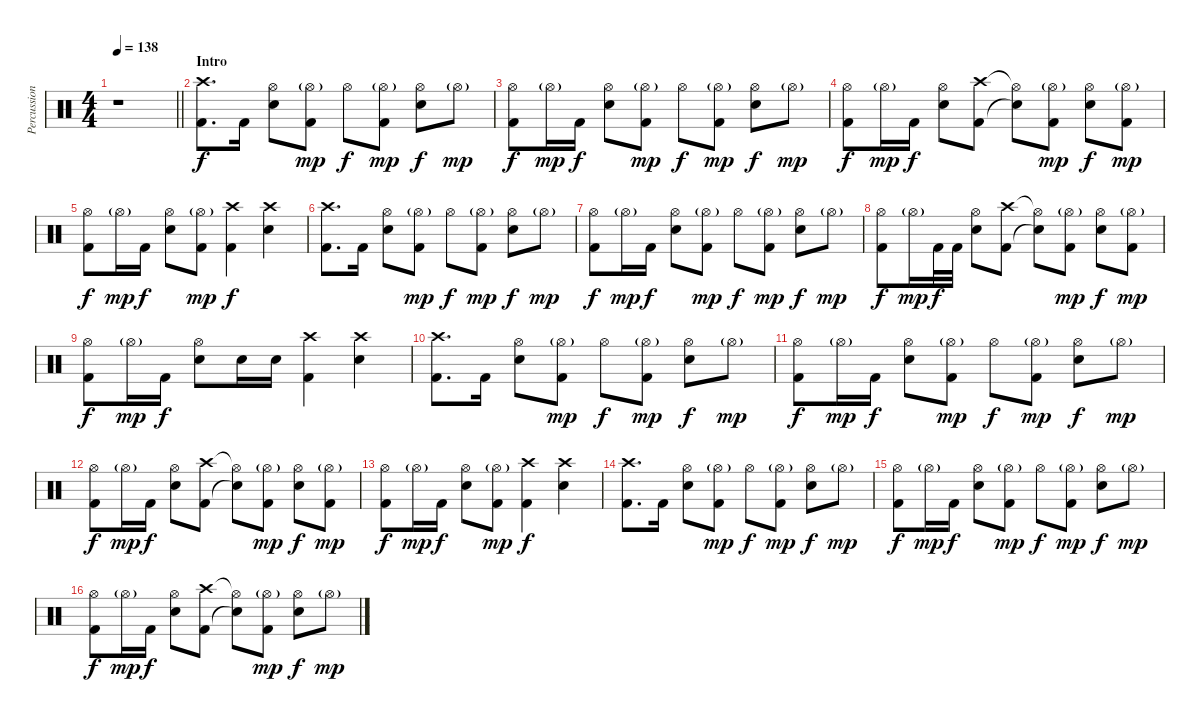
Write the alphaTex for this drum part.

\track ("Percussion" "Percussion") {instrument percussion}
\staff {score}
\articulation defaults
\ts (4 4)
\tempo 138
\clef neutral
\barLineRight lightlight
\ks c
r.1{dy f} |
\section ("" "Intro")
("Crash high (hit)" "Kick (hit) 2").8{d} "Kick (hit) 2".16 ("Hi-Hat (open)" "Snare (hit) 2").8 ("Hi-Hat (open)"{g} "Kick (hit) 2").8{dy mp} "Hi-Hat (open)".8{dy f} ("Hi-Hat (open)"{g} "Kick (hit) 2").8{dy mp} ("Hi-Hat (open)" "Snare (hit) 2").8{dy f} "Hi-Hat (open)"{g}.8{dy mp} |
("Hi-Hat (open)" "Kick (hit) 2").8{dy f} "Hi-Hat (open)"{g}.16{dy mp} "Kick (hit) 2".16{dy f} ("Hi-Hat (open)" "Snare (hit) 2").8 ("Hi-Hat (open)"{g} "Kick (hit) 2").8{dy mp} "Hi-Hat (open)".8{dy f} ("Hi-Hat (open)"{g} "Kick (hit) 2").8{dy mp} ("Hi-Hat (open)" "Snare (hit) 2").8{dy f} "Hi-Hat (open)"{g}.8{dy mp} |
("Hi-Hat (open)" "Kick (hit) 2").8{dy f} "Hi-Hat (open)"{g}.16{dy mp} "Kick (hit) 2".16{dy f} ("Hi-Hat (open)" "Snare (hit) 2").8 ("Crash high (hit)" "Kick (hit) 2").8 ("Hi-Hat (open)"{t} "Snare (hit)"{t}).8 ("Hi-Hat (open)"{g} "Kick (hit) 2").8{dy mp} ("Hi-Hat (open)" "Snare (hit) 2").8{dy f} ("Hi-Hat (open)"{g} "Kick (hit) 2").8{dy mp} |
("Hi-Hat (open)" "Kick (hit) 2").8{dy f} "Hi-Hat (open)"{g}.16{dy mp} "Kick (hit) 2".16{dy f} ("Hi-Hat (open)" "Snare (hit) 2").8 ("Hi-Hat (open)"{g} "Kick (hit) 2").8{dy mp} ("Crash high (hit)" "Kick (hit) 2").4{dy f} ("Crash high (hit)" "Snare (hit) 2").4 |
("Crash high (hit)" "Kick (hit) 2").8{d} "Kick (hit) 2".16 ("Hi-Hat (open)" "Snare (hit) 2").8 ("Hi-Hat (open)"{g} "Kick (hit) 2").8{dy mp} "Hi-Hat (open)".8{dy f} ("Hi-Hat (open)"{g} "Kick (hit) 2").8{dy mp} ("Hi-Hat (open)" "Snare (hit) 2").8{dy f} "Hi-Hat (open)"{g}.8{dy mp} |
("Hi-Hat (open)" "Kick (hit) 2").8{dy f} "Hi-Hat (open)"{g}.16{dy mp} "Kick (hit) 2".16{dy f} ("Hi-Hat (open)" "Snare (hit) 2").8 ("Hi-Hat (open)"{g} "Kick (hit) 2").8{dy mp} "Hi-Hat (open)".8{dy f} ("Hi-Hat (open)"{g} "Kick (hit) 2").8{dy mp} ("Hi-Hat (open)" "Snare (hit) 2").8{dy f} "Hi-Hat (open)"{g}.8{dy mp} |
("Hi-Hat (open)" "Kick (hit) 2").8{dy f} "Hi-Hat (open)"{g}.16{dy mp} "Kick (hit) 2".32{dy f} "Kick (hit) 2".32 ("Hi-Hat (open)" "Snare (hit) 2").8 ("Crash high (hit)" "Kick (hit) 2").8 ("Hi-Hat (open)"{t} "Snare (hit)"{t}).8 ("Hi-Hat (open)"{g} "Kick (hit) 2").8{dy mp} ("Hi-Hat (open)" "Snare (hit) 2").8{dy f} ("Hi-Hat (open)"{g} "Kick (hit) 2").8{dy mp} |
("Hi-Hat (open)" "Kick (hit) 2").8{dy f} "Hi-Hat (open)"{g}.16{dy mp} "Kick (hit) 2".16{dy f} ("Hi-Hat (open)" "Snare (hit) 2").8 "Snare (hit) 2".16 "Snare (hit) 2".16 ("Crash high (hit)" "Kick (hit) 2").4 ("Crash high (hit)" "Snare (hit) 2").4 |
("Crash high (hit)" "Kick (hit) 2").8{d} "Kick (hit) 2".16 ("Hi-Hat (open)" "Snare (hit) 2").8 ("Hi-Hat (open)"{g} "Kick (hit) 2").8{dy mp} "Hi-Hat (open)".8{dy f} ("Hi-Hat (open)"{g} "Kick (hit) 2").8{dy mp} ("Hi-Hat (open)" "Snare (hit) 2").8{dy f} "Hi-Hat (open)"{g}.8{dy mp} |
("Hi-Hat (open)" "Kick (hit) 2").8{dy f} "Hi-Hat (open)"{g}.16{dy mp} "Kick (hit) 2".16{dy f} ("Hi-Hat (open)" "Snare (hit) 2").8 ("Hi-Hat (open)"{g} "Kick (hit) 2").8{dy mp} "Hi-Hat (open)".8{dy f} ("Hi-Hat (open)"{g} "Kick (hit) 2").8{dy mp} ("Hi-Hat (open)" "Snare (hit) 2").8{dy f} "Hi-Hat (open)"{g}.8{dy mp} |
("Hi-Hat (open)" "Kick (hit) 2").8{dy f} "Hi-Hat (open)"{g}.16{dy mp} "Kick (hit) 2".16{dy f} ("Hi-Hat (open)" "Snare (hit) 2").8 ("Crash high (hit)" "Kick (hit) 2").8 ("Hi-Hat (open)"{t} "Snare (hit)"{t}).8 ("Hi-Hat (open)"{g} "Kick (hit) 2").8{dy mp} ("Hi-Hat (open)" "Snare (hit) 2").8{dy f} ("Hi-Hat (open)"{g} "Kick (hit) 2").8{dy mp} |
("Hi-Hat (open)" "Kick (hit) 2").8{dy f} "Hi-Hat (open)"{g}.16{dy mp} "Kick (hit) 2".16{dy f} ("Hi-Hat (open)" "Snare (hit) 2").8 ("Hi-Hat (open)"{g} "Kick (hit) 2").8{dy mp} ("Crash high (hit)" "Kick (hit) 2").4{dy f} ("Crash high (hit)" "Snare (hit) 2").4 |
("Crash high (hit)" "Kick (hit) 2").8{d} "Kick (hit) 2".16 ("Hi-Hat (open)" "Snare (hit) 2").8 ("Hi-Hat (open)"{g} "Kick (hit) 2").8{dy mp} "Hi-Hat (open)".8{dy f} ("Hi-Hat (open)"{g} "Kick (hit) 2").8{dy mp} ("Hi-Hat (open)" "Snare (hit) 2").8{dy f} "Hi-Hat (open)"{g}.8{dy mp} |
("Hi-Hat (open)" "Kick (hit) 2").8{dy f} "Hi-Hat (open)"{g}.16{dy mp} "Kick (hit) 2".16{dy f} ("Hi-Hat (open)" "Snare (hit) 2").8 ("Hi-Hat (open)"{g} "Kick (hit) 2").8{dy mp} "Hi-Hat (open)".8{dy f} ("Hi-Hat (open)"{g} "Kick (hit) 2").8{dy mp} ("Hi-Hat (open)" "Snare (hit) 2").8{dy f} "Hi-Hat (open)"{g}.8{dy mp} |
("Hi-Hat (open)" "Kick (hit) 2").8{dy f} "Hi-Hat (open)"{g}.16{dy mp} "Kick (hit) 2".16{dy f} ("Hi-Hat (open)" "Snare (hit) 2").8 ("Crash high (hit)" "Kick (hit) 2").8 ("Hi-Hat (open)"{t} "Snare (hit)"{t}).8 ("Hi-Hat (open)"{g} "Kick (hit) 2").8{dy mp} ("Hi-Hat (open)" "Snare (hit) 2").8{dy f} "Hi-Hat (open)"{g}.8{dy mp}
